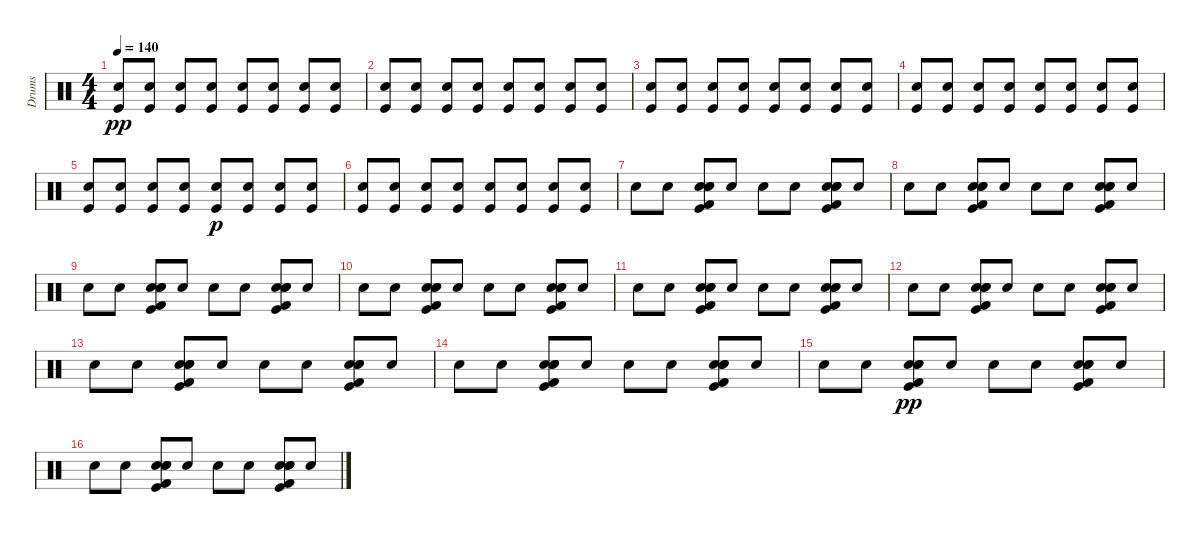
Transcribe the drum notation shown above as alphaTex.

\track ("Drums" "Drums") {instrument percussion}
\staff {score}
\articulation defaults
\ts (4 4)
\tempo 140
\clef neutral
\ks c
("Kick (hit)" "Electric Snare (hit)").8{dy pp} ("Kick (hit)" "Electric Snare (hit)").8 ("Electric Snare (hit)" "Kick (hit)").8 ("Electric Snare (hit)" "Kick (hit)").8 ("Electric Snare (hit)" "Kick (hit)").8 ("Kick (hit)" "Electric Snare (hit)").8 ("Electric Snare (hit)" "Kick (hit)").8 ("Kick (hit)" "Electric Snare (hit)").8 |
("Kick (hit)" "Electric Snare (hit)").8 ("Electric Snare (hit)" "Kick (hit)").8 ("Kick (hit)" "Electric Snare (hit)").8 ("Electric Snare (hit)" "Kick (hit)").8 ("Electric Snare (hit)" "Kick (hit)").8 ("Kick (hit)" "Electric Snare (hit)").8 ("Kick (hit)" "Electric Snare (hit)").8 ("Kick (hit)" "Electric Snare (hit)").8 |
("Kick (hit)" "Electric Snare (hit)").8 ("Electric Snare (hit)" "Kick (hit)").8 ("Electric Snare (hit)" "Kick (hit)").8 ("Electric Snare (hit)" "Kick (hit)").8 ("Electric Snare (hit)" "Kick (hit)").8 ("Electric Snare (hit)" "Kick (hit)").8 ("Kick (hit)" "Electric Snare (hit)").8 ("Kick (hit)" "Electric Snare (hit)").8 |
("Kick (hit)" "Electric Snare (hit)").8 ("Electric Snare (hit)" "Kick (hit)").8 ("Electric Snare (hit)" "Kick (hit)").8 ("Electric Snare (hit)" "Kick (hit)").8 ("Electric Snare (hit)" "Kick (hit)").8 ("Kick (hit)" "Electric Snare (hit)").8 ("Kick (hit)" "Electric Snare (hit)").8 ("Kick (hit)" "Electric Snare (hit)").8 |
("Kick (hit)" "Electric Snare (hit)").8 ("Kick (hit)" "Electric Snare (hit)").8 ("Electric Snare (hit)" "Kick (hit)").8 ("Electric Snare (hit)" "Kick (hit)").8 ("Electric Snare (hit)" "Kick (hit)").8{dy p} ("Electric Snare (hit)" "Kick (hit)").8 ("Kick (hit)" "Electric Snare (hit)").8 ("Kick (hit)" "Electric Snare (hit)").8 |
("Kick (hit)" "Electric Snare (hit)").8 ("Kick (hit)" "Electric Snare (hit)").8 ("Electric Snare (hit)" "Kick (hit)").8 ("Electric Snare (hit)" "Kick (hit)").8 ("Electric Snare (hit)" "Kick (hit)").8 ("Kick (hit)" "Electric Snare (hit)").8 ("Electric Snare (hit)" "Kick (hit)").8 ("Kick (hit)" "Electric Snare (hit)").8 |
"Electric Snare (hit)".8 "Electric Snare (hit)".8 ("Electric Snare (hit)" "Snare (hit) 2" "Electric Snare (hit)" "Kick (hit)" "Kick (hit) 2").8 "Electric Snare (hit)".8 "Electric Snare (hit)".8 "Electric Snare (hit)".8 ("Snare (hit) 2" "Electric Snare (hit)" "Electric Snare (hit)" "Kick (hit)" "Kick (hit) 2").8 "Electric Snare (hit)".8 |
"Electric Snare (hit)".8 "Electric Snare (hit)".8 ("Kick (hit) 2" "Snare (hit) 2" "Electric Snare (hit)" "Kick (hit)" "Electric Snare (hit)").8 "Electric Snare (hit)".8 "Electric Snare (hit)".8 "Electric Snare (hit)".8 ("Snare (hit) 2" "Kick (hit) 2" "Electric Snare (hit)" "Electric Snare (hit)" "Kick (hit)").8 "Electric Snare (hit)".8 |
"Electric Snare (hit)".8 "Electric Snare (hit)".8 ("Kick (hit)" "Kick (hit) 2" "Electric Snare (hit)" "Snare (hit) 2" "Electric Snare (hit)").8 "Electric Snare (hit)".8 "Electric Snare (hit)".8 "Electric Snare (hit)".8 ("Snare (hit) 2" "Kick (hit) 2" "Electric Snare (hit)" "Electric Snare (hit)" "Kick (hit)").8 "Electric Snare (hit)".8 |
"Electric Snare (hit)".8 "Electric Snare (hit)".8 ("Electric Snare (hit)" "Snare (hit) 2" "Kick (hit) 2" "Kick (hit)" "Electric Snare (hit)").8 "Electric Snare (hit)".8 "Electric Snare (hit)".8 "Electric Snare (hit)".8 ("Snare (hit) 2" "Kick (hit) 2" "Electric Snare (hit)" "Electric Snare (hit)" "Kick (hit)").8 "Electric Snare (hit)".8 |
"Electric Snare (hit)".8 "Electric Snare (hit)".8 ("Kick (hit) 2" "Snare (hit) 2" "Electric Snare (hit)" "Kick (hit)" "Electric Snare (hit)").8 "Electric Snare (hit)".8 "Electric Snare (hit)".8 "Electric Snare (hit)".8 ("Snare (hit) 2" "Kick (hit) 2" "Kick (hit)" "Electric Snare (hit)" "Electric Snare (hit)").8 "Electric Snare (hit)".8 |
"Electric Snare (hit)".8 "Electric Snare (hit)".8 ("Kick (hit) 2" "Snare (hit) 2" "Electric Snare (hit)" "Kick (hit)" "Electric Snare (hit)").8 "Electric Snare (hit)".8 "Electric Snare (hit)".8 "Electric Snare (hit)".8 ("Snare (hit) 2" "Kick (hit) 2" "Electric Snare (hit)" "Electric Snare (hit)" "Kick (hit)").8 "Electric Snare (hit)".8 |
"Electric Snare (hit)".8 "Electric Snare (hit)".8 ("Kick (hit) 2" "Snare (hit) 2" "Electric Snare (hit)" "Kick (hit)" "Electric Snare (hit)").8 "Electric Snare (hit)".8 "Electric Snare (hit)".8 "Electric Snare (hit)".8 ("Snare (hit) 2" "Kick (hit) 2" "Electric Snare (hit)" "Electric Snare (hit)" "Kick (hit)").8 "Electric Snare (hit)".8 |
"Electric Snare (hit)".8 "Electric Snare (hit)".8 ("Kick (hit)" "Kick (hit) 2" "Electric Snare (hit)" "Snare (hit) 2" "Electric Snare (hit)").8 "Electric Snare (hit)".8 "Electric Snare (hit)".8 "Electric Snare (hit)".8 ("Snare (hit) 2" "Kick (hit) 2" "Electric Snare (hit)" "Electric Snare (hit)" "Kick (hit)").8 "Electric Snare (hit)".8 |
"Electric Snare (hit)".8 "Electric Snare (hit)".8 ("Kick (hit) 2" "Snare (hit) 2" "Electric Snare (hit)" "Kick (hit)" "Electric Snare (hit)").8{dy pp} "Electric Snare (hit)".8 "Electric Snare (hit)".8 "Electric Snare (hit)".8 ("Snare (hit) 2" "Kick (hit) 2" "Electric Snare (hit)" "Electric Snare (hit)" "Kick (hit)").8 "Electric Snare (hit)".8 |
"Electric Snare (hit)".8 "Electric Snare (hit)".8 ("Kick (hit) 2" "Kick (hit)" "Snare (hit) 2" "Electric Snare (hit)" "Electric Snare (hit)").8 "Electric Snare (hit)".8 "Electric Snare (hit)".8 "Electric Snare (hit)".8 ("Snare (hit) 2" "Kick (hit) 2" "Kick (hit)" "Electric Snare (hit)" "Electric Snare (hit)").8 "Electric Snare (hit)".8
